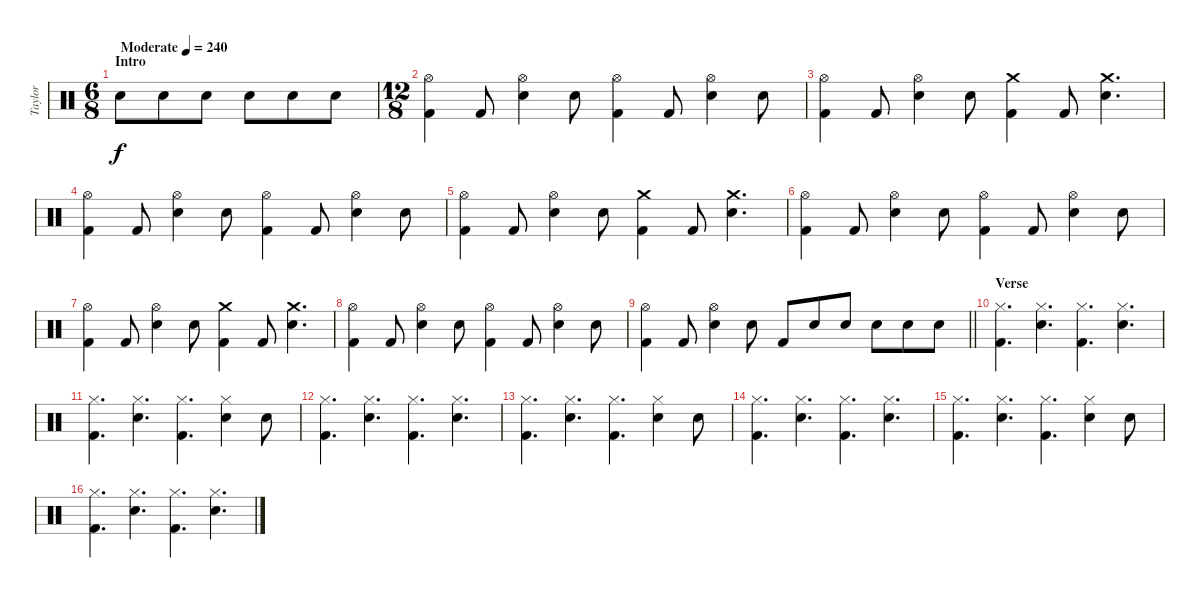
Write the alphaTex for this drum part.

\track ("Taylor" "Taylor") {instrument percussion}
\staff {score}
\articulation defaults
\ts (6 8)
\section ("" "Intro")
\tempo (240 "Moderate")
\clef neutral
\ks c "Snare (hit) 2".8{dy f} "Snare (hit) 2".8 "Snare (hit) 2".8 "Snare (hit) 2".8 "Snare (hit) 2".8 "Snare (hit) 2".8
|
\ts (12 8)
("Hi-Hat (open)" "Kick (hit) 2").4 "Kick (hit) 2".8 ("Hi-Hat (open)" "Snare (hit) 2").4 "Snare (hit) 2".8 ("Hi-Hat (open)" "Kick (hit) 2").4 "Kick (hit) 2".8 ("Hi-Hat (open)" "Snare (hit) 2").4 "Snare (hit) 2".8 |
("Hi-Hat (open)" "Kick (hit) 2").4 "Kick (hit) 2".8 ("Hi-Hat (open)" "Snare (hit) 2").4 "Snare (hit) 2".8 ("Crash medium (hit)" "Kick (hit) 2").4 "Kick (hit) 2".8 ("Crash medium (hit)" "Snare (hit) 2").4{d} |
("Hi-Hat (open)" "Kick (hit) 2").4 "Kick (hit) 2".8 ("Hi-Hat (open)" "Snare (hit) 2").4 "Snare (hit) 2".8 ("Hi-Hat (open)" "Kick (hit) 2").4 "Kick (hit) 2".8 ("Hi-Hat (open)" "Snare (hit) 2").4 "Snare (hit) 2".8 |
("Hi-Hat (open)" "Kick (hit) 2").4 "Kick (hit) 2".8 ("Hi-Hat (open)" "Snare (hit) 2").4 "Snare (hit) 2".8 ("Crash medium (hit)" "Kick (hit) 2").4 "Kick (hit) 2".8 ("Crash medium (hit)" "Snare (hit) 2").4{d} |
("Hi-Hat (open)" "Kick (hit) 2").4 "Kick (hit) 2".8 ("Hi-Hat (open)" "Snare (hit) 2").4 "Snare (hit) 2".8 ("Hi-Hat (open)" "Kick (hit) 2").4 "Kick (hit) 2".8 ("Hi-Hat (open)" "Snare (hit) 2").4 "Snare (hit) 2".8 |
("Hi-Hat (open)" "Kick (hit) 2").4 "Kick (hit) 2".8 ("Hi-Hat (open)" "Snare (hit) 2").4 "Snare (hit) 2".8 ("Crash medium (hit)" "Kick (hit) 2").4 "Kick (hit) 2".8 ("Crash medium (hit)" "Snare (hit) 2").4{d} |
("Hi-Hat (open)" "Kick (hit) 2").4 "Kick (hit) 2".8 ("Hi-Hat (open)" "Snare (hit) 2").4 "Snare (hit) 2".8 ("Hi-Hat (open)" "Kick (hit) 2").4 "Kick (hit) 2".8 ("Hi-Hat (open)" "Snare (hit) 2").4 "Snare (hit) 2".8 |
\barLineRight lightlight
("Hi-Hat (open)" "Kick (hit) 2").4 "Kick (hit) 2".8 ("Hi-Hat (open)" "Snare (hit) 2").4 "Snare (hit) 2".8 "Kick (hit) 2".8 "Snare (hit) 2".8 "Snare (hit) 2".8 "Snare (hit) 2".8 "Snare (hit) 2".8 "Snare (hit) 2".8 |
\section ("" "Verse")
("Hi-Hat (closed)" "Kick (hit) 2").4{d} ("Hi-Hat (closed)" "Snare (hit) 2").4{d} ("Hi-Hat (closed)" "Kick (hit) 2").4{d} ("Hi-Hat (closed)" "Snare (hit) 2").4{d} |
("Hi-Hat (closed)" "Kick (hit) 2").4{d} ("Hi-Hat (closed)" "Snare (hit) 2").4{d} ("Hi-Hat (closed)" "Kick (hit) 2").4{d} ("Hi-Hat (closed)" "Snare (hit) 2").4 "Snare (hit) 2".8 |
("Hi-Hat (closed)" "Kick (hit) 2").4{d} ("Hi-Hat (closed)" "Snare (hit) 2").4{d} ("Hi-Hat (closed)" "Kick (hit) 2").4{d} ("Hi-Hat (closed)" "Snare (hit) 2").4{d} |
("Hi-Hat (closed)" "Kick (hit) 2").4{d} ("Hi-Hat (closed)" "Snare (hit) 2").4{d} ("Hi-Hat (closed)" "Kick (hit) 2").4{d} ("Hi-Hat (closed)" "Snare (hit) 2").4 "Snare (hit) 2".8 |
("Hi-Hat (closed)" "Kick (hit) 2").4{d} ("Hi-Hat (closed)" "Snare (hit) 2").4{d} ("Hi-Hat (closed)" "Kick (hit) 2").4{d} ("Hi-Hat (closed)" "Snare (hit) 2").4{d} |
("Hi-Hat (closed)" "Kick (hit) 2").4{d} ("Hi-Hat (closed)" "Snare (hit) 2").4{d} ("Hi-Hat (closed)" "Kick (hit) 2").4{d} ("Hi-Hat (closed)" "Snare (hit) 2").4 "Snare (hit) 2".8 |
("Hi-Hat (closed)" "Kick (hit) 2").4{d} ("Hi-Hat (closed)" "Snare (hit) 2").4{d} ("Hi-Hat (closed)" "Kick (hit) 2").4{d} ("Hi-Hat (closed)" "Snare (hit) 2").4{d}
